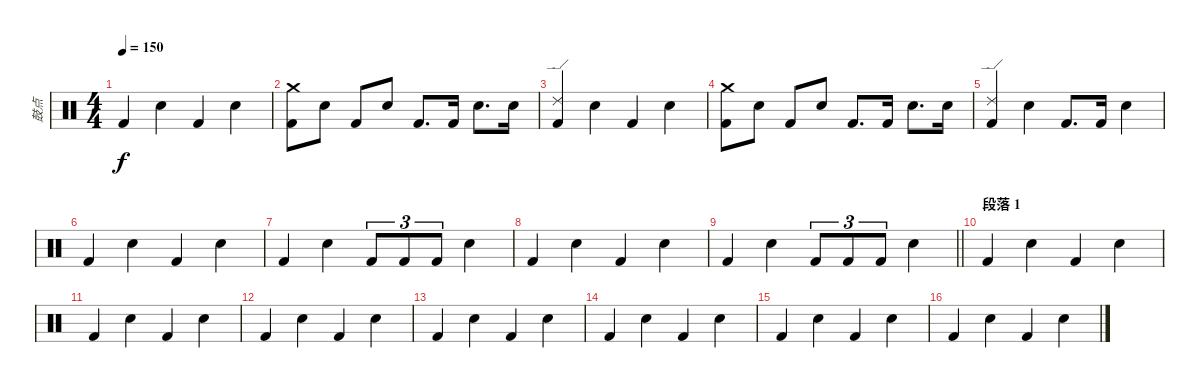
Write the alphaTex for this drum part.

\track ("鼓点" "鼓点") {instrument percussion}
\staff {score}
\articulation defaults
\ts (4 4)
\tempo 150
\clef neutral
\ks c "Kick (hit) 2".4{dy f} "Snare (hit) 2".4 "Kick (hit) 2".4 "Snare (hit) 2".4
|
("Kick (hit) 2" "Crash medium (hit)").8 "Snare (hit) 2".8 "Kick (hit) 2".8 "Snare (hit) 2".8 "Kick (hit) 2".8{d} "Kick (hit) 2".16 "Snare (hit) 2".8{d} "Snare (hit) 2".16 |
("Kick (hit) 2" "Ride (edge) 2").4 "Snare (hit) 2".4 "Kick (hit) 2".4 "Snare (hit) 2".4 |
("Kick (hit) 2" "Crash medium (hit)").8 "Snare (hit) 2".8 "Kick (hit) 2".8 "Snare (hit) 2".8 "Kick (hit) 2".8{d} "Kick (hit) 2".16 "Snare (hit) 2".8{d} "Snare (hit) 2".16 |
("Kick (hit) 2" "Ride (edge) 2").4 "Snare (hit) 2".4 "Kick (hit) 2".8{d} "Kick (hit) 2".16 "Snare (hit) 2".4 |
"Kick (hit) 2".4 "Snare (hit) 2".4 "Kick (hit) 2".4 "Snare (hit) 2".4 |
"Kick (hit) 2".4 "Snare (hit) 2".4 "Kick (hit) 2".8{tu (3 2)} "Kick (hit) 2".8{tu (3 2)} "Kick (hit) 2".8{tu (3 2)} "Snare (hit) 2".4 |
"Kick (hit) 2".4 "Snare (hit) 2".4 "Kick (hit) 2".4 "Snare (hit) 2".4 |
\barLineRight lightlight "Kick (hit) 2".4 "Snare (hit) 2".4 "Kick (hit) 2".8{tu (3 2)} "Kick (hit) 2".8{tu (3 2)} "Kick (hit) 2".8{tu (3 2)} "Snare (hit) 2".4
|
\section ("" "段落 1")
"Kick (hit) 2".4 "Snare (hit) 2".4 "Kick (hit) 2".4 "Snare (hit) 2".4 |
"Kick (hit) 2".4 "Snare (hit) 2".4 "Kick (hit) 2".4 "Snare (hit) 2".4 |
"Kick (hit) 2".4 "Snare (hit) 2".4 "Kick (hit) 2".4 "Snare (hit) 2".4 |
"Kick (hit) 2".4 "Snare (hit) 2".4 "Kick (hit) 2".4 "Snare (hit) 2".4 |
"Kick (hit) 2".4 "Snare (hit) 2".4 "Kick (hit) 2".4 "Snare (hit) 2".4 |
"Kick (hit) 2".4 "Snare (hit) 2".4 "Kick (hit) 2".4 "Snare (hit) 2".4 |
"Kick (hit) 2".4 "Snare (hit) 2".4 "Kick (hit) 2".4 "Snare (hit) 2".4
